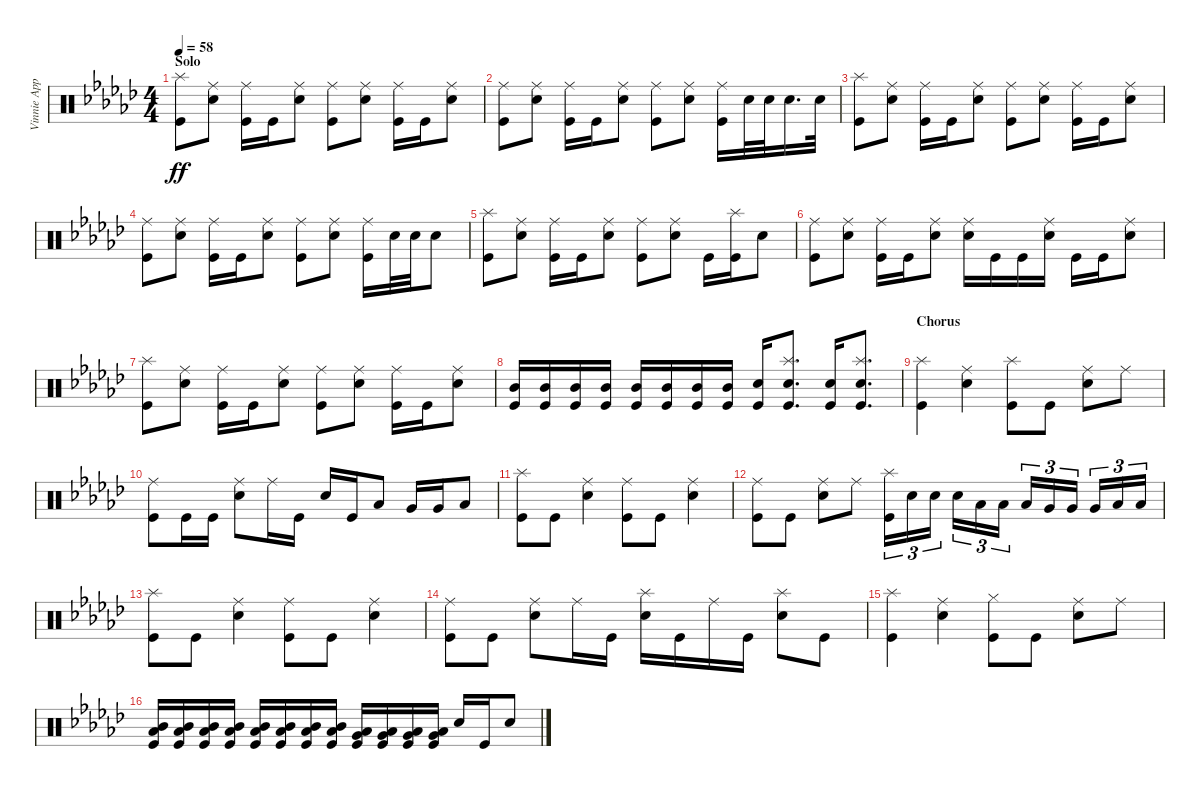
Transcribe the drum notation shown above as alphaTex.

\track ("Vinnie Appice" "Vinnie App") {instrument percussion}
\staff {score}
\articulation defaults
\ts (4 4)
\section ("" "Solo")
\tempo 58
\clef neutral
\ks ebminor
("Kick (hit)" "Splash (hit)").8{dy ff} ("Snare (hit) 2" "Ride (middle)").8 ("Kick (hit)" "Ride (middle)").16 "Kick (hit)".16 ("Ride (middle)" "Snare (hit) 2").8 ("Kick (hit)" "Ride (middle)").8 ("Ride (middle)" "Snare (hit) 2").8 ("Kick (hit)" "Ride (middle)").16 "Kick (hit)".16 ("Ride (middle)" "Snare (hit) 2").8 |
("Kick (hit)" "Ride (middle)").8 ("Ride (middle)" "Snare (hit) 2").8 ("Kick (hit)" "Ride (middle)").16 "Kick (hit)".16 ("Ride (middle)" "Snare (hit) 2").8 ("Kick (hit)" "Ride (middle)").8 ("Ride (middle)" "Snare (hit) 2").8 ("Kick (hit)" "Ride (middle)").16 "Snare (hit) 2".32 "Snare (hit) 2".32 "Snare (hit) 2".16{d} "Snare (hit) 2".32 |
("Kick (hit)" "Splash (hit)").8 ("Ride (middle)" "Snare (hit) 2").8 ("Kick (hit)" "Ride (middle)").16 "Kick (hit)".16 ("Ride (middle)" "Snare (hit) 2").8 ("Kick (hit)" "Ride (middle)").8 ("Ride (middle)" "Snare (hit) 2").8 ("Kick (hit)" "Ride (middle)").16 "Kick (hit)".16 ("Ride (middle)" "Snare (hit) 2").8 |
("Kick (hit)" "Ride (middle)").8 ("Ride (middle)" "Snare (hit) 2").8 ("Kick (hit)" "Ride (middle)").16 "Kick (hit)".16 ("Ride (middle)" "Snare (hit) 2").8 ("Kick (hit)" "Ride (middle)").8 ("Ride (middle)" "Snare (hit) 2").8 ("Kick (hit)" "Ride (middle)").16 "Snare (hit) 2".32 "Snare (hit) 2".32 "Snare (hit) 2".8 |
("Kick (hit)" "Splash (hit)").8 ("Ride (middle)" "Snare (hit) 2").8 ("Kick (hit)" "Ride (middle)").16 "Kick (hit)".16 ("Ride (middle)" "Snare (hit) 2").8 ("Kick (hit)" "Ride (middle)").8 ("Ride (middle)" "Snare (hit) 2").8 "Kick (hit)".16 ("Kick (hit)" "Splash (hit)").16 "Snare (hit) 2".8 |
("Kick (hit)" "Ride (middle)").8 ("Ride (middle)" "Snare (hit) 2").8 ("Kick (hit)" "Ride (middle)").16 "Kick (hit)".16 ("Ride (middle)" "Snare (hit) 2").8 ("Ride (middle)" "Snare (hit) 2").16 "Kick (hit)".16 "Kick (hit)".16 ("Ride (middle)" "Snare (hit) 2").16 "Kick (hit)".16 "Kick (hit)".16 ("Snare (hit) 2" "Ride (middle)").8 |
("Kick (hit)" "Splash (hit)").8 ("Ride (middle)" "Snare (hit) 2").8 ("Kick (hit)" "Ride (middle)").16 "Kick (hit)".16 ("Ride (middle)" "Snare (hit) 2").8 ("Kick (hit)" "Ride (middle)").8 ("Ride (middle)" "Snare (hit) 2").8 ("Kick (hit)" "Ride (middle)").16 "Kick (hit)".16 ("Ride (middle)" "Snare (hit) 2").8 |
("Kick (hit)" "Mid Tom (hit)").16 ("Kick (hit)" "Mid Tom (hit)").16 ("Kick (hit)" "Mid Tom (hit)").16 ("Kick (hit)" "Mid Tom (hit)").16 ("Kick (hit)" "Mid Tom (hit)").16 ("Kick (hit)" "Mid Tom (hit)").16 ("Kick (hit)" "Mid Tom (hit)").16 ("Kick (hit)" "Mid Tom (hit)").16 ("Kick (hit)" "Snare (hit) 2").16 ("Splash (hit)" "Kick (hit)" "Snare (hit) 2").8{d} ("Kick (hit)" "Snare (hit) 2").16 ("Splash (hit)" "Kick (hit)" "Snare (hit) 2").8{d} |
\section ("" "Chorus")
("Splash (hit)" "Kick (hit)").4 ("Snare (hit) 2" "Ride (middle)").4 ("Kick (hit)" "Splash (hit)").8 "Kick (hit)".8 ("Ride (middle)" "Snare (hit) 2").8 "Ride (middle)".8 |
("Ride (middle)" "Kick (hit)").8 "Kick (hit)".16 "Kick (hit)".16 ("Ride (middle)" "Snare (hit) 2").8 "Ride (middle)".16 "Kick (hit)".16 "Snare (hit) 2".16 "Kick (hit)".16 "Low Tom (hit)".8 "Very Low Tom (hit)".16 "Very Low Tom (hit)".16 "Low Floor Tom (hit)".8 |
("Kick (hit)" "Splash (hit)").8 "Kick (hit)".8 ("Ride (middle)" "Snare (hit) 2").4 ("Kick (hit)" "Ride (middle)").8 "Kick (hit)".8 ("Ride (middle)" "Snare (hit) 2").4 |
("Kick (hit)" "Ride (middle)").8 "Kick (hit)".8 ("Ride (middle)" "Snare (hit) 2").8 "Ride (middle)".8 ("Kick (hit)" "Splash (hit)").16{tu (3 2)} "Snare (hit) 2".16{tu (3 2)} "Snare (hit) 2".16{tu (3 2)} "Snare (hit) 2".16{tu (3 2)} "Low Tom (hit)".16{tu (3 2)} "Low Tom (hit)".16{tu (3 2)} "Low Tom (hit)".16{tu (3 2)} "Very Low Tom (hit)".16{tu (3 2)} "Very Low Tom (hit)".16{tu (3 2)} "Very Low Tom (hit)".16{tu (3 2)} "Low Floor Tom (hit)".16{tu (3 2)} "Low Floor Tom (hit)".16{tu (3 2)} |
("Kick (hit)" "Splash (hit)").8 "Kick (hit)".8 ("Ride (middle)" "Snare (hit) 2").4 ("Kick (hit)" "Ride (middle)").8 "Kick (hit)".8 ("Ride (middle)" "Snare (hit) 2").4 |
("Kick (hit)" "Ride (middle)").8 "Kick (hit)".8 ("Ride (middle)" "Snare (hit) 2").8 "Ride (middle)".16 "Kick (hit)".16 ("Snare (hit) 2" "Splash (hit)").16 "Kick (hit)".16 "Ride (middle)".16 "Kick (hit)".16 ("Snare (hit) 2" "Splash (hit)").8 "Kick (hit)".8 |
("Splash (hit)" "Kick (hit)").4 ("Snare (hit) 2" "Ride (middle)").4 ("Kick (hit)" "Hi-Hat (closed)").8 "Kick (hit)".8 ("Ride (middle)" "Snare (hit) 2").8 "Ride (middle)".8 |
("Kick (hit)" "Low Floor Tom (hit)" "Mid Tom (hit)").16 ("Kick (hit)" "Low Floor Tom (hit)" "Mid Tom (hit)").16 ("Kick (hit)" "Low Floor Tom (hit)" "Mid Tom (hit)").16 ("Kick (hit)" "Low Floor Tom (hit)" "Mid Tom (hit)").16 ("Kick (hit)" "Low Floor Tom (hit)" "Mid Tom (hit)").16 ("Kick (hit)" "Low Floor Tom (hit)" "Mid Tom (hit)").16 ("Kick (hit)" "Low Floor Tom (hit)" "Mid Tom (hit)").16 ("Kick (hit)" "Low Floor Tom (hit)" "Mid Tom (hit)").16 ("Kick (hit)" "Low Floor Tom (hit)" "Very Low Tom (hit)").16 ("Kick (hit)" "Low Floor Tom (hit)" "Very Low Tom (hit)").16 ("Kick (hit)" "Low Floor Tom (hit)" "Very Low Tom (hit)").16 ("Kick (hit)" "Low Floor Tom (hit)" "Very Low Tom (hit)").16 "Snare (hit) 2".16 "Kick (hit)".16 "Snare (hit) 2".8
